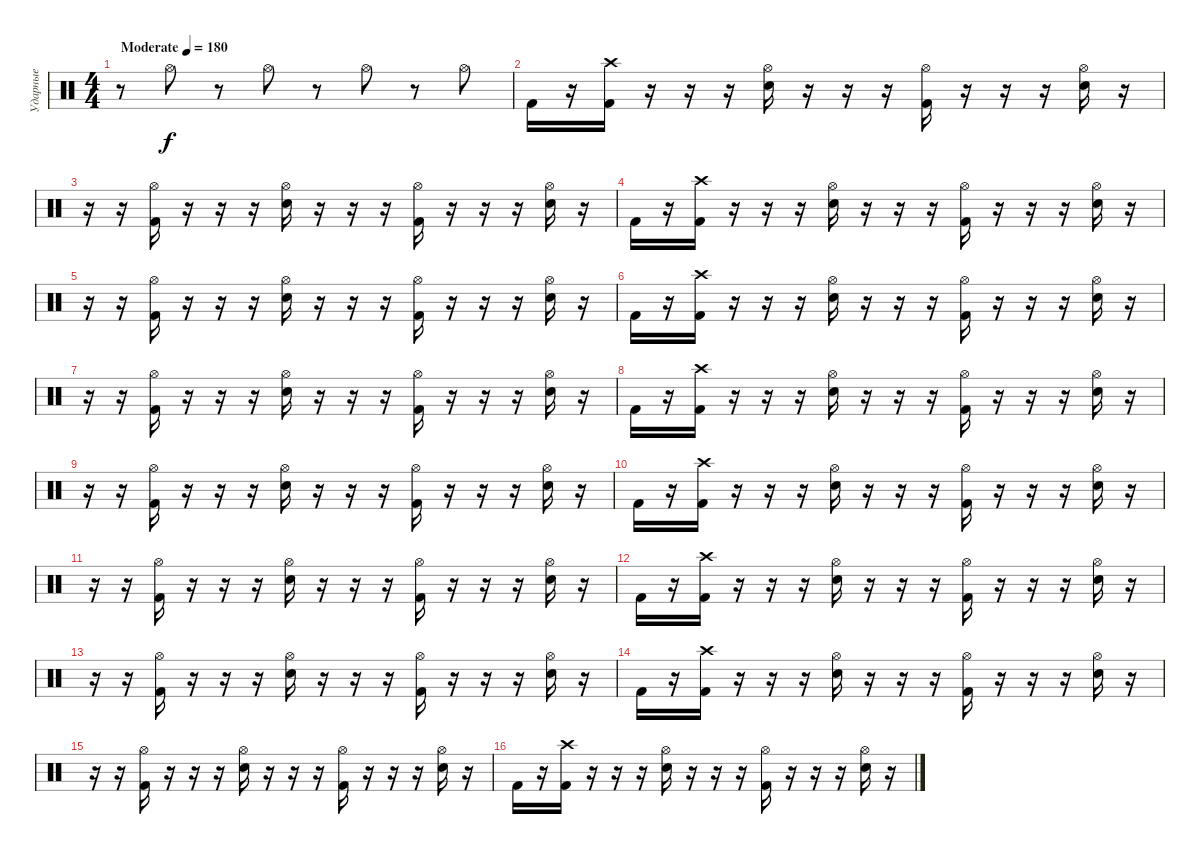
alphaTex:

\track ("Ударные" "Ударные") {instrument percussion}
\staff {score}
\articulation defaults
\ts (4 4)
\tempo (180 "Moderate")
\clef neutral
\ks c
r.8{dy f} "Hi-Hat (open)".8 r.8 "Hi-Hat (open)".8 r.8 "Hi-Hat (open)".8 r.8 "Hi-Hat (open)".8 |
"Kick (hit) 2".16 r.16 ("Crash high (hit)" "Kick (hit) 2").16 r.16 r.16 r.16 ("Hi-Hat (open)" "Electric Snare (hit)").16 r.16 r.16 r.16 ("Hi-Hat (open)" "Kick (hit) 2").16 r.16 r.16 r.16 ("Hi-Hat (open)" "Electric Snare (hit)").16 r.16 |
r.16 r.16 ("Hi-Hat (open)" "Kick (hit) 2").16 r.16 r.16 r.16 ("Hi-Hat (open)" "Electric Snare (hit)").16 r.16 r.16 r.16 ("Hi-Hat (open)" "Kick (hit) 2").16 r.16 r.16 r.16 ("Hi-Hat (open)" "Electric Snare (hit)").16 r.16 |
"Kick (hit) 2".16 r.16 ("Crash high (hit)" "Kick (hit) 2").16 r.16 r.16 r.16 ("Hi-Hat (open)" "Electric Snare (hit)").16 r.16 r.16 r.16 ("Hi-Hat (open)" "Kick (hit) 2").16 r.16 r.16 r.16 ("Hi-Hat (open)" "Electric Snare (hit)").16 r.16 |
r.16 r.16 ("Hi-Hat (open)" "Kick (hit) 2").16 r.16 r.16 r.16 ("Hi-Hat (open)" "Electric Snare (hit)").16 r.16 r.16 r.16 ("Hi-Hat (open)" "Kick (hit) 2").16 r.16 r.16 r.16 ("Hi-Hat (open)" "Electric Snare (hit)").16 r.16 |
"Kick (hit) 2".16 r.16 ("Crash high (hit)" "Kick (hit) 2").16 r.16 r.16 r.16 ("Hi-Hat (open)" "Electric Snare (hit)").16 r.16 r.16 r.16 ("Hi-Hat (open)" "Kick (hit) 2").16 r.16 r.16 r.16 ("Hi-Hat (open)" "Electric Snare (hit)").16 r.16 |
r.16 r.16 ("Hi-Hat (open)" "Kick (hit) 2").16 r.16 r.16 r.16 ("Hi-Hat (open)" "Electric Snare (hit)").16 r.16 r.16 r.16 ("Hi-Hat (open)" "Kick (hit) 2").16 r.16 r.16 r.16 ("Hi-Hat (open)" "Electric Snare (hit)").16 r.16 |
"Kick (hit) 2".16 r.16 ("Crash high (hit)" "Kick (hit) 2").16 r.16 r.16 r.16 ("Hi-Hat (open)" "Electric Snare (hit)").16 r.16 r.16 r.16 ("Hi-Hat (open)" "Kick (hit) 2").16 r.16 r.16 r.16 ("Hi-Hat (open)" "Electric Snare (hit)").16 r.16 |
r.16 r.16 ("Hi-Hat (open)" "Kick (hit) 2").16 r.16 r.16 r.16 ("Hi-Hat (open)" "Electric Snare (hit)").16 r.16 r.16 r.16 ("Hi-Hat (open)" "Kick (hit) 2").16 r.16 r.16 r.16 ("Hi-Hat (open)" "Electric Snare (hit)").16 r.16 |
"Kick (hit) 2".16 r.16 ("Crash high (hit)" "Kick (hit) 2").16 r.16 r.16 r.16 ("Hi-Hat (open)" "Electric Snare (hit)").16 r.16 r.16 r.16 ("Hi-Hat (open)" "Kick (hit) 2").16 r.16 r.16 r.16 ("Hi-Hat (open)" "Electric Snare (hit)").16 r.16 |
r.16 r.16 ("Hi-Hat (open)" "Kick (hit) 2").16 r.16 r.16 r.16 ("Hi-Hat (open)" "Electric Snare (hit)").16 r.16 r.16 r.16 ("Hi-Hat (open)" "Kick (hit) 2").16 r.16 r.16 r.16 ("Hi-Hat (open)" "Electric Snare (hit)").16 r.16 |
"Kick (hit) 2".16 r.16 ("Crash high (hit)" "Kick (hit) 2").16 r.16 r.16 r.16 ("Hi-Hat (open)" "Electric Snare (hit)").16 r.16 r.16 r.16 ("Hi-Hat (open)" "Kick (hit) 2").16 r.16 r.16 r.16 ("Hi-Hat (open)" "Electric Snare (hit)").16 r.16 |
r.16 r.16 ("Hi-Hat (open)" "Kick (hit) 2").16 r.16 r.16 r.16 ("Hi-Hat (open)" "Electric Snare (hit)").16 r.16 r.16 r.16 ("Hi-Hat (open)" "Kick (hit) 2").16 r.16 r.16 r.16 ("Hi-Hat (open)" "Electric Snare (hit)").16 r.16 |
"Kick (hit) 2".16 r.16 ("Crash high (hit)" "Kick (hit) 2").16 r.16 r.16 r.16 ("Hi-Hat (open)" "Electric Snare (hit)").16 r.16 r.16 r.16 ("Hi-Hat (open)" "Kick (hit) 2").16 r.16 r.16 r.16 ("Hi-Hat (open)" "Electric Snare (hit)").16 r.16 |
r.16 r.16 ("Hi-Hat (open)" "Kick (hit) 2").16 r.16 r.16 r.16 ("Hi-Hat (open)" "Electric Snare (hit)").16 r.16 r.16 r.16 ("Hi-Hat (open)" "Kick (hit) 2").16 r.16 r.16 r.16 ("Hi-Hat (open)" "Electric Snare (hit)").16 r.16 |
"Kick (hit) 2".16 r.16 ("Crash high (hit)" "Kick (hit) 2").16 r.16 r.16 r.16 ("Hi-Hat (open)" "Electric Snare (hit)").16 r.16 r.16 r.16 ("Hi-Hat (open)" "Kick (hit) 2").16 r.16 r.16 r.16 ("Hi-Hat (open)" "Electric Snare (hit)").16 r.16
